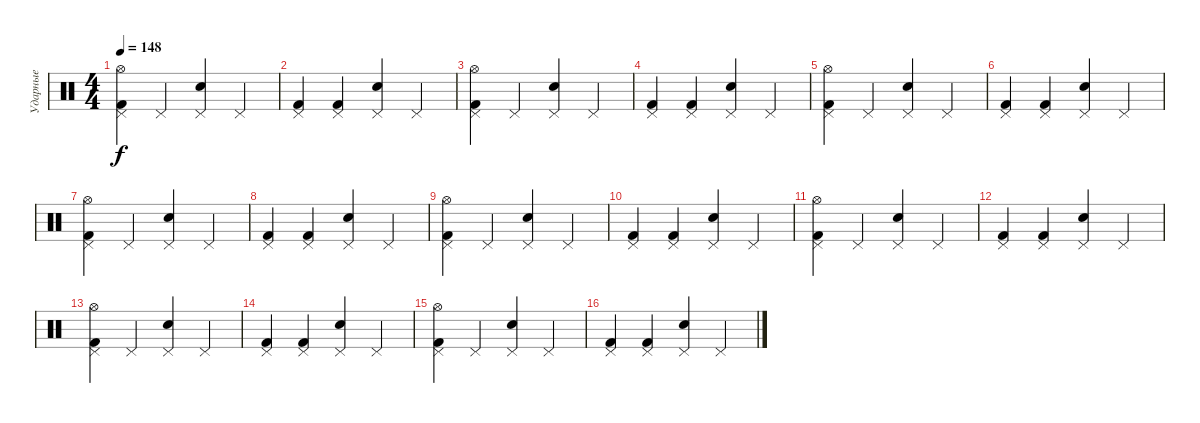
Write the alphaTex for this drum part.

\track ("Ударные" "Ударные") {instrument percussion}
\staff
\articulation defaults
\ts (4 4)
\tempo 148
\clef neutral
\ks c
("Kick (hit) 2" "Pedal Hi-Hat (hit)" "Hi-Hat (open)").4{dy f} "Pedal Hi-Hat (hit)".4 ("Snare (hit) 2" "Pedal Hi-Hat (hit)").4 "Pedal Hi-Hat (hit)".4 |
("Kick (hit) 2" "Pedal Hi-Hat (hit)").4 ("Kick (hit) 2" "Pedal Hi-Hat (hit)").4 ("Snare (hit) 2" "Pedal Hi-Hat (hit)").4 "Pedal Hi-Hat (hit)".4 |
("Kick (hit) 2" "Pedal Hi-Hat (hit)" "Hi-Hat (open)").4 "Pedal Hi-Hat (hit)".4 ("Snare (hit) 2" "Pedal Hi-Hat (hit)").4 "Pedal Hi-Hat (hit)".4 |
("Kick (hit) 2" "Pedal Hi-Hat (hit)").4 ("Kick (hit) 2" "Pedal Hi-Hat (hit)").4 ("Snare (hit) 2" "Pedal Hi-Hat (hit)").4 "Pedal Hi-Hat (hit)".4 |
("Kick (hit) 2" "Pedal Hi-Hat (hit)" "Hi-Hat (open)").4 "Pedal Hi-Hat (hit)".4 ("Snare (hit) 2" "Pedal Hi-Hat (hit)").4 "Pedal Hi-Hat (hit)".4 |
("Kick (hit) 2" "Pedal Hi-Hat (hit)").4 ("Kick (hit) 2" "Pedal Hi-Hat (hit)").4 ("Snare (hit) 2" "Pedal Hi-Hat (hit)").4 "Pedal Hi-Hat (hit)".4 |
("Kick (hit) 2" "Pedal Hi-Hat (hit)" "Hi-Hat (open)").4 "Pedal Hi-Hat (hit)".4 ("Snare (hit) 2" "Pedal Hi-Hat (hit)").4 "Pedal Hi-Hat (hit)".4 |
("Kick (hit) 2" "Pedal Hi-Hat (hit)").4 ("Kick (hit) 2" "Pedal Hi-Hat (hit)").4 ("Snare (hit) 2" "Pedal Hi-Hat (hit)").4 "Pedal Hi-Hat (hit)".4 |
("Kick (hit) 2" "Pedal Hi-Hat (hit)" "Hi-Hat (open)").4 "Pedal Hi-Hat (hit)".4 ("Snare (hit) 2" "Pedal Hi-Hat (hit)").4 "Pedal Hi-Hat (hit)".4 |
("Kick (hit) 2" "Pedal Hi-Hat (hit)").4 ("Kick (hit) 2" "Pedal Hi-Hat (hit)").4 ("Snare (hit) 2" "Pedal Hi-Hat (hit)").4 "Pedal Hi-Hat (hit)".4 |
("Kick (hit) 2" "Pedal Hi-Hat (hit)" "Hi-Hat (open)").4 "Pedal Hi-Hat (hit)".4 ("Snare (hit) 2" "Pedal Hi-Hat (hit)").4 "Pedal Hi-Hat (hit)".4 |
("Kick (hit) 2" "Pedal Hi-Hat (hit)").4 ("Kick (hit) 2" "Pedal Hi-Hat (hit)").4 ("Snare (hit) 2" "Pedal Hi-Hat (hit)").4 "Pedal Hi-Hat (hit)".4 |
("Kick (hit) 2" "Pedal Hi-Hat (hit)" "Hi-Hat (open)").4 "Pedal Hi-Hat (hit)".4 ("Snare (hit) 2" "Pedal Hi-Hat (hit)").4 "Pedal Hi-Hat (hit)".4 |
("Kick (hit) 2" "Pedal Hi-Hat (hit)").4 ("Kick (hit) 2" "Pedal Hi-Hat (hit)").4 ("Snare (hit) 2" "Pedal Hi-Hat (hit)").4 "Pedal Hi-Hat (hit)".4 |
("Kick (hit) 2" "Pedal Hi-Hat (hit)" "Hi-Hat (open)").4 "Pedal Hi-Hat (hit)".4 ("Snare (hit) 2" "Pedal Hi-Hat (hit)").4 "Pedal Hi-Hat (hit)".4 |
("Kick (hit) 2" "Pedal Hi-Hat (hit)").4 ("Kick (hit) 2" "Pedal Hi-Hat (hit)").4 ("Snare (hit) 2" "Pedal Hi-Hat (hit)").4 "Pedal Hi-Hat (hit)".4
